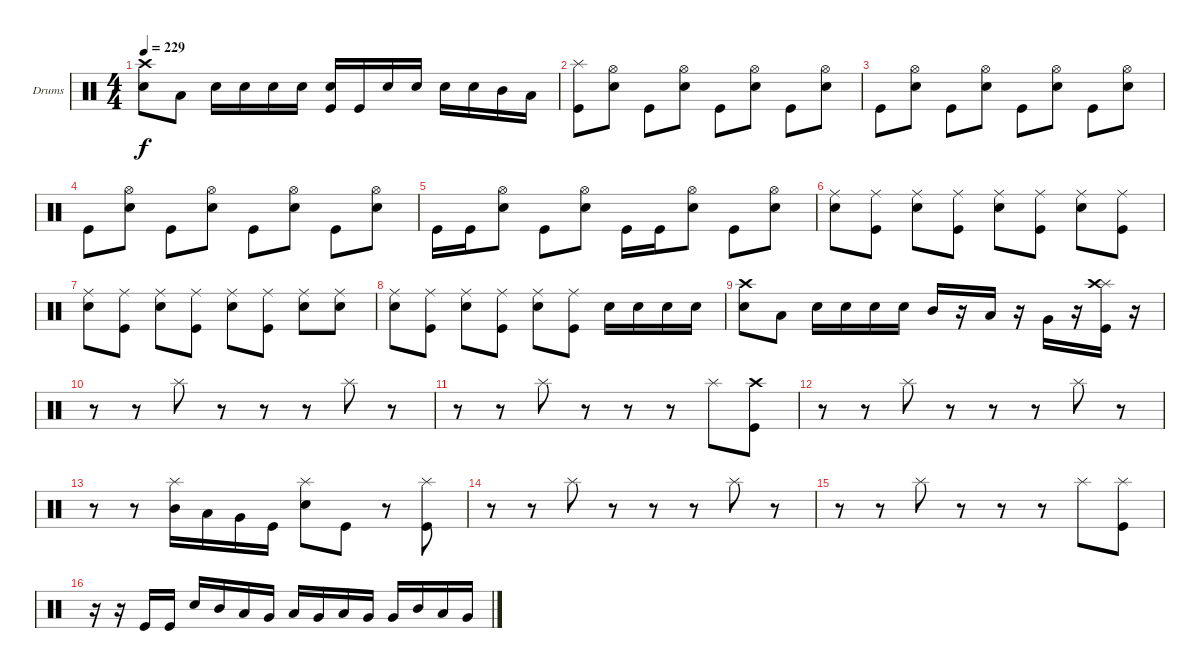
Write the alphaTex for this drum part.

\defaultSystemsLayout 4
\bracketExtendMode groupsimilarinstruments
\firstSystemTrackNameOrientation horizontal
\otherSystemsTrackNameOrientation horizontal
\track ("Drumkit" "Drums") {instrument percussion}
\staff {score}
\articulation defaults
\ts (4 4)
\tempo 229
\clef neutral
\ks c
("Snare (hit) 2" "Crash high (hit)").8{dy f} "Low Tom (hit)".8 "Snare (hit) 2".16 "Snare (hit) 2".16 "Snare (hit) 2".16 "Snare (hit) 2".16 ("Kick (hit)" "Snare (hit) 2").16 "Kick (hit)".16 "Snare (hit) 2".16 "Snare (hit) 2".16 "Snare (hit) 2".16 "Snare (hit) 2".16 "Mid Tom (hit)".16 "Low Tom (hit)".16 |
("Kick (hit)" "Splash (hit)").8 ("Snare (hit) 2" "Hi-Hat (open)").8 "Kick (hit)".8 ("Snare (hit) 2" "Hi-Hat (open)").8 "Kick (hit)".8 ("Snare (hit) 2" "Hi-Hat (open)").8 "Kick (hit)".8 ("Snare (hit) 2" "Hi-Hat (open)").8 |
"Kick (hit)".8 ("Snare (hit) 2" "Hi-Hat (open)").8 "Kick (hit)".8 ("Snare (hit) 2" "Hi-Hat (open)").8 "Kick (hit)".8 ("Snare (hit) 2" "Hi-Hat (open)").8 "Kick (hit)".8 ("Snare (hit) 2" "Hi-Hat (open)").8 |
"Kick (hit)".8 ("Snare (hit) 2" "Hi-Hat (open)").8 "Kick (hit)".8 ("Snare (hit) 2" "Hi-Hat (open)").8 "Kick (hit)".8 ("Snare (hit) 2" "Hi-Hat (open)").8 "Kick (hit)".8 ("Snare (hit) 2" "Hi-Hat (open)").8 |
"Kick (hit)".16 "Kick (hit)".16 ("Snare (hit) 2" "Hi-Hat (open)").8 "Kick (hit)".8 ("Snare (hit) 2" "Hi-Hat (open)").8 "Kick (hit)".16 "Kick (hit)".16 ("Snare (hit) 2" "Hi-Hat (open)").8 "Kick (hit)".8 ("Snare (hit) 2" "Hi-Hat (open)").8 |
("Snare (hit) 2" "Ride (middle)").8 ("Kick (hit)" "Ride (middle)").8 ("Snare (hit) 2" "Ride (middle)").8 ("Kick (hit)" "Ride (middle)").8 ("Snare (hit) 2" "Ride (middle)").8 ("Kick (hit)" "Ride (middle)").8 ("Snare (hit) 2" "Ride (middle)").8 ("Kick (hit)" "Ride (middle)").8 |
("Snare (hit) 2" "Ride (middle)").8 ("Kick (hit)" "Ride (middle)").8 ("Snare (hit) 2" "Ride (middle)").8 ("Kick (hit)" "Ride (middle)").8 ("Snare (hit) 2" "Ride (middle)").8 ("Kick (hit)" "Ride (middle)").8 ("Snare (hit) 2" "Ride (middle)").8 ("Snare (hit) 2" "Ride (middle)").8 |
("Snare (hit) 2" "Ride (middle)").8 ("Kick (hit)" "Ride (middle)").8 ("Snare (hit) 2" "Ride (middle)").8 ("Kick (hit)" "Ride (middle)").8 ("Snare (hit) 2" "Ride (middle)").8 ("Kick (hit)" "Ride (middle)").8 "Snare (hit) 2".16 "Snare (hit) 2".16 "Snare (hit) 2".16 "Snare (hit) 2".16 |
("Snare (hit) 2" "Crash high (hit)").8 "Low Tom (hit)".8 "Snare (hit) 2".16 "Snare (hit) 2".16 "Snare (hit) 2".16 "Snare (hit) 2".16 "Mid Tom (hit)".16 r.16 "Low Tom (hit)".16 r.16 "Very Low Tom (hit)".16 r.16 ("Kick (hit)" "Splash (hit)" "Crash high (hit)").16 r.16 |
r.8 r.8 "Splash (hit)".8 r.8 r.8 r.8 "Splash (hit)".8 r.8 |
r.8 r.8 "Splash (hit)".8 r.8 r.8 r.8 "Splash (hit)".8 ("Kick (hit)" "Crash high (hit)").8 |
r.8 r.8 "Splash (hit)".8 r.8 r.8 r.8 "Splash (hit)".8 r.8 |
r.8 r.8 ("Splash (hit)" "Mid Tom (hit)").16 "Low Tom (hit)".16 "Very Low Tom (hit)".16 "Kick (hit)".16 ("Splash (hit)" "Snare (hit) 2").8 "Kick (hit)".8 r.8 ("Kick (hit)" "Splash (hit)").8 |
r.8 r.8 "Splash (hit)".8 r.8 r.8 r.8 "Splash (hit)".8 r.8 |
r.8 r.8 "Splash (hit)".8 r.8 r.8 r.8 "Splash (hit)".8 ("Kick (hit)" "Splash (hit)").8 |
r.16 r.16 "Kick (hit)".16 "Kick (hit)".16 "Snare (hit) 2".16 "Mid Tom (hit)".16 "Low Tom (hit)".16 "Very Low Tom (hit)".16 "Low Tom (hit)".16 "Very Low Tom (hit)".16 "Low Tom (hit)".16 "Very Low Tom (hit)".16 "Very Low Tom (hit)".16 "Mid Tom (hit)".16 "Low Tom (hit)".16 "Very Low Tom (hit)".16
